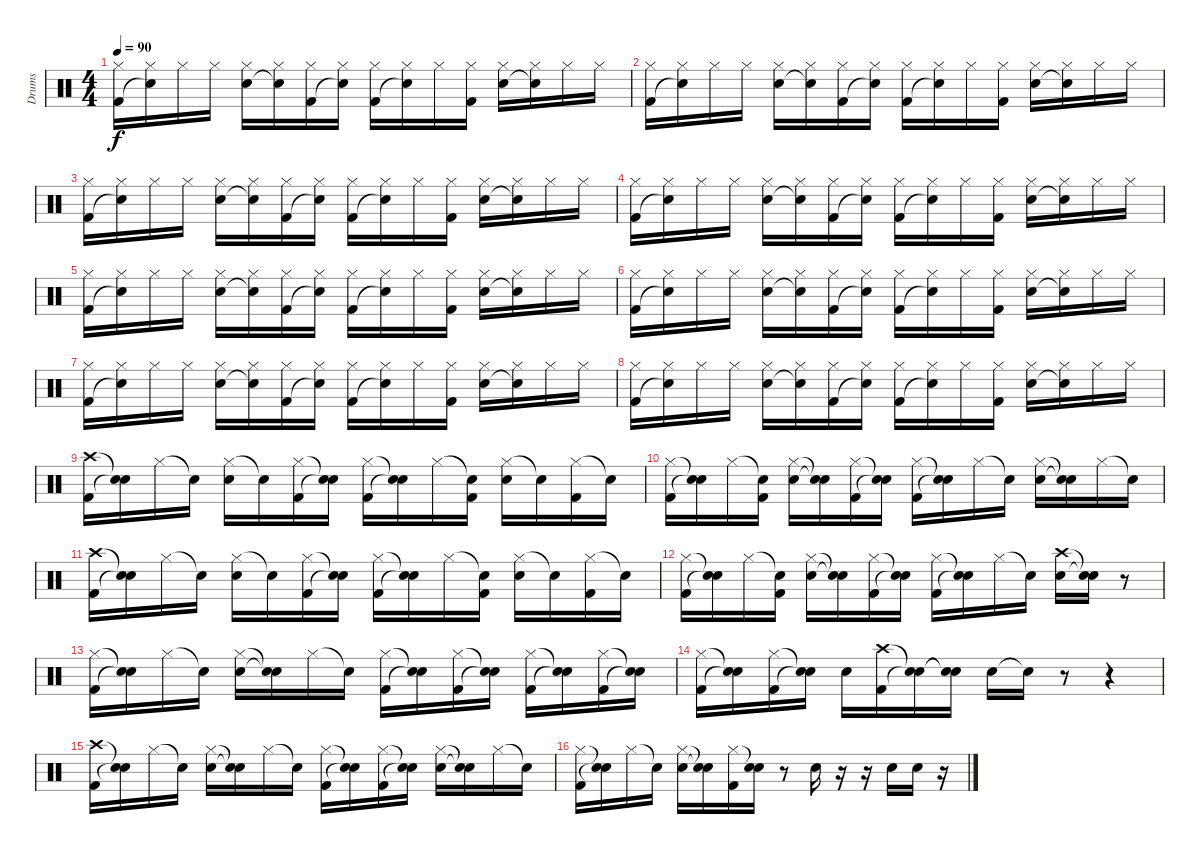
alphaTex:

\track ("Drums" "Drums") {instrument percussion}
\staff {score}
\articulation defaults
\ts (4 4)
\tempo 90
\clef neutral
\ks c
("Hi-Hat (closed)" "Kick (hit) 2").16{dy f} ("Hi-Hat (closed)" "Snare (hit)"{t}).16 "Hi-Hat (closed)".16 "Hi-Hat (closed)".16 ("Hi-Hat (closed)" "Snare (hit) 2").16 ("Hi-Hat (closed)" "Snare (hit)"{t}).16 ("Hi-Hat (closed)" "Kick (hit) 2").16 ("Hi-Hat (closed)" "Snare (hit)"{t}).16 ("Hi-Hat (closed)" "Kick (hit) 2").16 ("Hi-Hat (closed)" "Snare (hit)"{t}).16 "Hi-Hat (closed)".16 ("Hi-Hat (closed)" "Kick (hit) 2").16 ("Hi-Hat (closed)" "Snare (hit) 2").16 ("Hi-Hat (closed)" "Snare (hit)"{t}).16 "Hi-Hat (closed)".16 "Hi-Hat (closed)".16 |
("Hi-Hat (closed)" "Kick (hit) 2").16 ("Hi-Hat (closed)" "Snare (hit)"{t}).16 "Hi-Hat (closed)".16 "Hi-Hat (closed)".16 ("Hi-Hat (closed)" "Snare (hit) 2").16 ("Hi-Hat (closed)" "Snare (hit)"{t}).16 ("Hi-Hat (closed)" "Kick (hit) 2").16 ("Hi-Hat (closed)" "Snare (hit)"{t}).16 ("Hi-Hat (closed)" "Kick (hit) 2").16 ("Hi-Hat (closed)" "Snare (hit)"{t}).16 "Hi-Hat (closed)".16 ("Hi-Hat (closed)" "Kick (hit) 2").16 ("Hi-Hat (closed)" "Snare (hit) 2").16 ("Hi-Hat (closed)" "Snare (hit)"{t}).16 "Hi-Hat (closed)".16 "Hi-Hat (closed)".16 |
("Hi-Hat (closed)" "Kick (hit) 2").16 ("Hi-Hat (closed)" "Snare (hit)"{t}).16 "Hi-Hat (closed)".16 "Hi-Hat (closed)".16 ("Hi-Hat (closed)" "Snare (hit) 2").16 ("Hi-Hat (closed)" "Snare (hit)"{t}).16 ("Hi-Hat (closed)" "Kick (hit) 2").16 ("Hi-Hat (closed)" "Snare (hit)"{t}).16 ("Hi-Hat (closed)" "Kick (hit) 2").16 ("Hi-Hat (closed)" "Snare (hit)"{t}).16 "Hi-Hat (closed)".16 ("Hi-Hat (closed)" "Kick (hit) 2").16 ("Hi-Hat (closed)" "Snare (hit) 2").16 ("Hi-Hat (closed)" "Snare (hit)"{t}).16 "Hi-Hat (closed)".16 "Hi-Hat (closed)".16 |
("Hi-Hat (closed)" "Kick (hit) 2").16 ("Hi-Hat (closed)" "Snare (hit)"{t}).16 "Hi-Hat (closed)".16 "Hi-Hat (closed)".16 ("Hi-Hat (closed)" "Snare (hit) 2").16 ("Hi-Hat (closed)" "Snare (hit)"{t}).16 ("Hi-Hat (closed)" "Kick (hit) 2").16 ("Hi-Hat (closed)" "Snare (hit)"{t}).16 ("Hi-Hat (closed)" "Kick (hit) 2").16 ("Hi-Hat (closed)" "Snare (hit)"{t}).16 "Hi-Hat (closed)".16 ("Hi-Hat (closed)" "Kick (hit) 2").16 ("Hi-Hat (closed)" "Snare (hit) 2").16 ("Hi-Hat (closed)" "Snare (hit)"{t}).16 "Hi-Hat (closed)".16 "Hi-Hat (closed)".16 |
("Hi-Hat (closed)" "Kick (hit) 2").16 ("Hi-Hat (closed)" "Snare (hit)"{t}).16 "Hi-Hat (closed)".16 "Hi-Hat (closed)".16 ("Hi-Hat (closed)" "Snare (hit) 2").16 ("Hi-Hat (closed)" "Snare (hit)"{t}).16 ("Hi-Hat (closed)" "Kick (hit) 2").16 ("Hi-Hat (closed)" "Snare (hit)"{t}).16 ("Hi-Hat (closed)" "Kick (hit) 2").16 ("Hi-Hat (closed)" "Snare (hit)"{t}).16 "Hi-Hat (closed)".16 ("Hi-Hat (closed)" "Kick (hit) 2").16 ("Hi-Hat (closed)" "Snare (hit) 2").16 ("Hi-Hat (closed)" "Snare (hit)"{t}).16 "Hi-Hat (closed)".16 "Hi-Hat (closed)".16 |
("Hi-Hat (closed)" "Kick (hit) 2").16 ("Hi-Hat (closed)" "Snare (hit)"{t}).16 "Hi-Hat (closed)".16 "Hi-Hat (closed)".16 ("Hi-Hat (closed)" "Snare (hit) 2").16 ("Hi-Hat (closed)" "Snare (hit)"{t}).16 ("Hi-Hat (closed)" "Kick (hit) 2").16 ("Hi-Hat (closed)" "Snare (hit)"{t}).16 ("Hi-Hat (closed)" "Kick (hit) 2").16 ("Hi-Hat (closed)" "Snare (hit)"{t}).16 "Hi-Hat (closed)".16 ("Hi-Hat (closed)" "Kick (hit) 2").16 ("Hi-Hat (closed)" "Snare (hit) 2").16 ("Hi-Hat (closed)" "Snare (hit)"{t}).16 "Hi-Hat (closed)".16 "Hi-Hat (closed)".16 |
("Hi-Hat (closed)" "Kick (hit) 2").16 ("Hi-Hat (closed)" "Snare (hit)"{t}).16 "Hi-Hat (closed)".16 "Hi-Hat (closed)".16 ("Hi-Hat (closed)" "Snare (hit) 2").16 ("Hi-Hat (closed)" "Snare (hit)"{t}).16 ("Hi-Hat (closed)" "Kick (hit) 2").16 ("Hi-Hat (closed)" "Snare (hit)"{t}).16 ("Hi-Hat (closed)" "Kick (hit) 2").16 ("Hi-Hat (closed)" "Snare (hit)"{t}).16 "Hi-Hat (closed)".16 ("Hi-Hat (closed)" "Kick (hit) 2").16 ("Hi-Hat (closed)" "Snare (hit) 2").16 ("Hi-Hat (closed)" "Snare (hit)"{t}).16 "Hi-Hat (closed)".16 "Hi-Hat (closed)".16 |
("Hi-Hat (closed)" "Kick (hit) 2").16 ("Hi-Hat (closed)" "Snare (hit)"{t}).16 "Hi-Hat (closed)".16 "Hi-Hat (closed)".16 ("Hi-Hat (closed)" "Snare (hit) 2").16 ("Hi-Hat (closed)" "Snare (hit)"{t}).16 ("Hi-Hat (closed)" "Kick (hit) 2").16 ("Hi-Hat (closed)" "Snare (hit)"{t}).16 ("Hi-Hat (closed)" "Kick (hit) 2").16 ("Hi-Hat (closed)" "Snare (hit)"{t}).16 "Hi-Hat (closed)".16 ("Hi-Hat (closed)" "Kick (hit) 2").16 ("Hi-Hat (closed)" "Snare (hit) 2").16 ("Hi-Hat (closed)" "Snare (hit)"{t}).16 "Hi-Hat (closed)".16 "Hi-Hat (closed)".16 |
("Crash high (hit)" "Kick (hit) 2").16 ("Snare (hit)"{t} "Snare (hit)"{t}).16 "Hi-Hat (closed)".16 "Snare (hit)"{t}.16 ("Hi-Hat (closed)" "Snare (hit) 2").16 "Snare (hit)"{t}.16 ("Hi-Hat (closed)" "Kick (hit) 2").16 ("Snare (hit)"{t} "Snare (hit)"{t}).16 ("Hi-Hat (closed)" "Kick (hit) 2").16 ("Snare (hit)"{t} "Snare (hit)"{t}).16 "Hi-Hat (closed)".16 ("Snare (hit)"{t} "Kick (hit) 2").16 ("Hi-Hat (closed)" "Snare (hit) 2").16 "Snare (hit)"{t}.16 ("Hi-Hat (closed)" "Kick (hit) 2").16 "Snare (hit)"{t}.16 |
("Hi-Hat (closed)" "Kick (hit) 2").16 ("Snare (hit)"{t} "Snare (hit)"{t}).16 "Hi-Hat (closed)".16 ("Snare (hit)"{t} "Kick (hit) 2").16 ("Hi-Hat (closed)" "Snare (hit) 2").16 ("Snare (hit)"{t} "Snare (hit)"{t}).16 ("Hi-Hat (closed)" "Kick (hit) 2").16 ("Snare (hit)"{t} "Snare (hit)"{t}).16 ("Hi-Hat (closed)" "Kick (hit) 2").16 ("Snare (hit)"{t} "Snare (hit)"{t}).16 "Hi-Hat (closed)".16 "Snare (hit)"{t}.16 ("Hi-Hat (closed)" "Snare (hit) 2").16 ("Snare (hit)"{t} "Snare (hit)"{t}).16 "Hi-Hat (closed)".16 "Snare (hit)"{t}.16 |
("Crash high (hit)" "Kick (hit) 2").16 ("Snare (hit)"{t} "Snare (hit)"{t}).16 "Hi-Hat (closed)".16 "Snare (hit)"{t}.16 ("Hi-Hat (closed)" "Snare (hit) 2").16 "Snare (hit)"{t}.16 ("Hi-Hat (closed)" "Kick (hit) 2").16 ("Snare (hit)"{t} "Snare (hit)"{t}).16 ("Hi-Hat (closed)" "Kick (hit) 2").16 ("Snare (hit)"{t} "Snare (hit)"{t}).16 "Hi-Hat (closed)".16 ("Snare (hit)"{t} "Kick (hit) 2").16 ("Hi-Hat (closed)" "Snare (hit) 2").16 "Snare (hit)"{t}.16 ("Hi-Hat (closed)" "Kick (hit) 2").16 "Snare (hit)"{t}.16 |
("Hi-Hat (closed)" "Kick (hit) 2").16 ("Snare (hit)"{t} "Snare (hit)"{t}).16 "Hi-Hat (closed)".16 ("Snare (hit)"{t} "Kick (hit) 2").16 ("Hi-Hat (closed)" "Snare (hit) 2").16 ("Snare (hit)"{t} "Snare (hit)"{t}).16 ("Hi-Hat (closed)" "Kick (hit) 2").16 ("Snare (hit)"{t} "Snare (hit)"{t}).16 ("Hi-Hat (closed)" "Kick (hit) 2").16 ("Snare (hit)"{t} "Snare (hit)"{t}).16 "Hi-Hat (closed)".16 "Snare (hit)"{t}.16 ("Crash high (hit)" "Snare (hit) 2").16 ("Snare (hit)"{t} "Snare (hit)"{t}).16 r.8 |
("Hi-Hat (closed)" "Kick (hit) 2").16 ("Snare (hit)"{t} "Snare (hit)"{t}).16 "Hi-Hat (closed)".16 "Snare (hit)"{t}.16 ("Hi-Hat (closed)" "Snare (hit) 2").16 ("Snare (hit)"{t} "Snare (hit)"{t}).16 "Hi-Hat (closed)".16 "Snare (hit)"{t}.16 ("Hi-Hat (closed)" "Kick (hit) 2").16 ("Snare (hit)"{t} "Snare (hit)"{t}).16 ("Hi-Hat (closed)" "Kick (hit) 2").16 ("Snare (hit)"{t} "Snare (hit)"{t}).16 ("Hi-Hat (closed)" "Kick (hit) 2").16 ("Snare (hit)"{t} "Snare (hit)"{t}).16 ("Hi-Hat (closed)" "Kick (hit) 2").16 ("Snare (hit)"{t} "Snare (hit)"{t}).16 |
("Hi-Hat (closed)" "Kick (hit) 2").16 ("Snare (hit)"{t} "Snare (hit)"{t}).16 ("Hi-Hat (closed)" "Kick (hit) 2").16 ("Snare (hit)"{t} "Snare (hit)"{t}).16 "Snare (hit) 2".16 ("Crash high (hit)" "Kick (hit) 2").16 ("Snare (hit)"{t} "Snare (hit)"{t}).16 ("Snare (hit)"{t} "Snare (hit)"{t}).16 "Snare (hit) 2".16 "Snare (hit)"{t}.16 r.8 r.4 |
("Crash high (hit)" "Kick (hit) 2").16 ("Snare (hit)"{t} "Snare (hit)"{t}).16 "Hi-Hat (closed)".16 "Snare (hit)"{t}.16 ("Hi-Hat (closed)" "Snare (hit) 2").16 ("Snare (hit)"{t} "Snare (hit)"{t}).16 "Hi-Hat (closed)".16 "Snare (hit)"{t}.16 ("Hi-Hat (closed)" "Kick (hit) 2").16 ("Snare (hit)"{t} "Snare (hit)"{t}).16 ("Hi-Hat (closed)" "Kick (hit) 2").16 ("Snare (hit)"{t} "Snare (hit)"{t}).16 ("Hi-Hat (closed)" "Snare (hit) 2").16 ("Snare (hit)"{t} "Snare (hit)"{t}).16 "Hi-Hat (closed)".16 "Snare (hit)"{t}.16 |
("Hi-Hat (closed)" "Kick (hit) 2").16 ("Snare (hit)"{t} "Snare (hit)"{t}).16 "Hi-Hat (closed)".16 "Snare (hit)"{t}.16 ("Hi-Hat (closed)" "Snare (hit) 2").16 ("Snare (hit)"{t} "Snare (hit)"{t}).16 ("Hi-Hat (closed)" "Kick (hit) 2").16 ("Snare (hit)"{t} "Snare (hit) 2").16 r.8 "Snare (hit) 2".16 r.16 r.16 "Snare (hit) 2".16 "Snare (hit) 2".16 r.16
